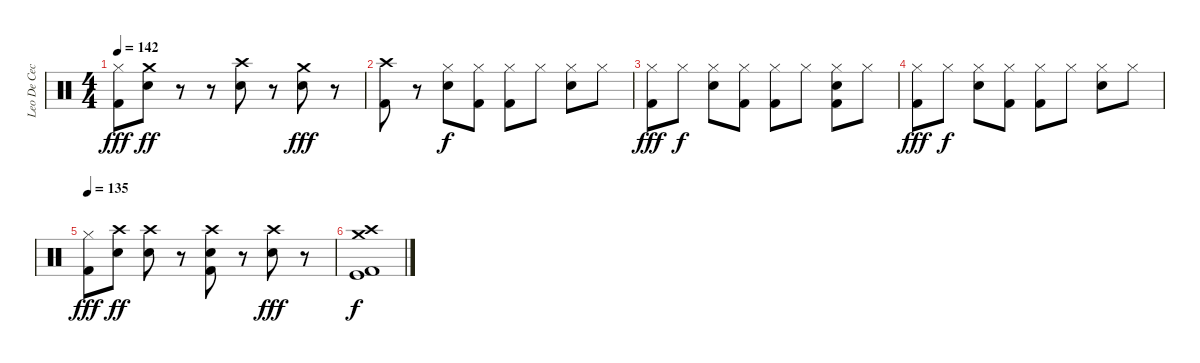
\track ("Leo De Cecco" "Leo De Cec") {instrument percussion}
\staff {score}
\articulation defaults
\ts (4 4)
\tempo 142
\clef neutral
\ks c
("Hi-Hat (closed)" "Kick (hit) 2").8{dy fff} ("Crash medium (hit)" "Electric Snare (hit)").8{dy ff} r.8 r.8 ("Crash high (hit)" "Electric Snare (hit)").8 r.8 ("Crash medium (hit)" "Electric Snare (hit)").8{dy fff} r.8 |
("Crash high (hit)" "Kick (hit) 2").8 r.8 ("Hi-Hat (closed)" "Electric Snare (hit)").8{dy f} ("Hi-Hat (closed)" "Kick (hit) 2").8 ("Hi-Hat (closed)" "Kick (hit) 2").8 "Hi-Hat (closed)".8 ("Hi-Hat (closed)" "Electric Snare (hit)").8 "Hi-Hat (closed)".8 |
("Hi-Hat (closed)" "Kick (hit) 2").8{dy fff} "Hi-Hat (closed)".8{dy f} ("Hi-Hat (closed)" "Electric Snare (hit)").8 ("Hi-Hat (closed)" "Kick (hit) 2").8 ("Hi-Hat (closed)" "Kick (hit) 2").8 "Hi-Hat (closed)".8 ("Hi-Hat (closed)" "Electric Snare (hit)" "Kick (hit) 2").8 "Hi-Hat (closed)".8 |
("Hi-Hat (closed)" "Kick (hit) 2").8{dy fff} "Hi-Hat (closed)".8{dy f} ("Hi-Hat (closed)" "Electric Snare (hit)").8 ("Hi-Hat (closed)" "Kick (hit) 2").8 ("Hi-Hat (closed)" "Kick (hit) 2").8 "Hi-Hat (closed)".8 ("Hi-Hat (closed)" "Electric Snare (hit)").8 "Hi-Hat (closed)".8 |
\tempo 135
("Hi-Hat (closed)" "Kick (hit) 2").8{dy fff} ("Crash high (hit)" "Electric Snare (hit)").8{dy ff} ("Crash high (hit)" "Electric Snare (hit)").8 r.8 ("Crash high (hit)" "Electric Snare (hit)" "Kick (hit) 2").8 r.8 ("Crash high (hit)" "Electric Snare (hit)").8{dy fff} r.8 |
("Crash medium (hit)" "Crash high (hit)" "Kick (hit)" "Kick (hit) 2").1{dy f}
